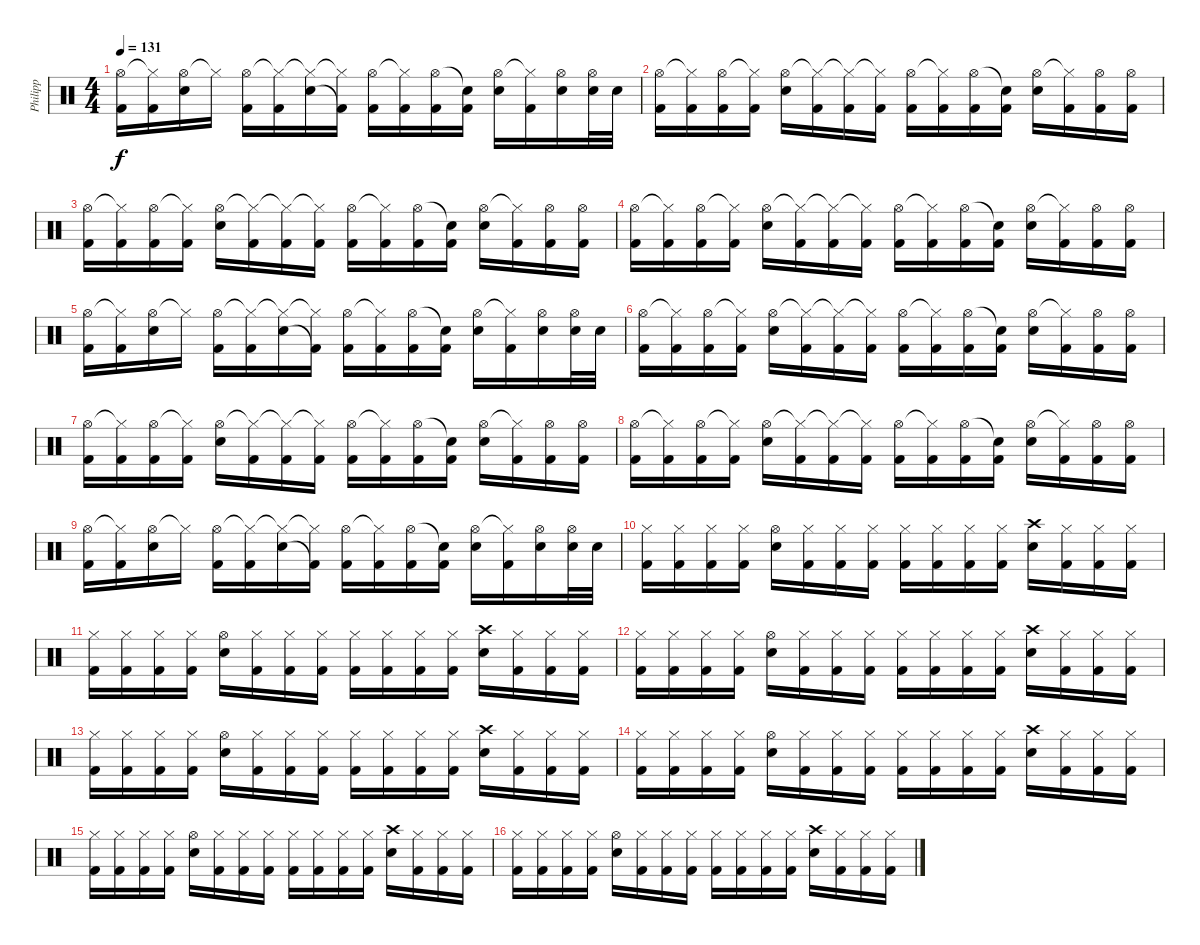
\track ("Philipp" "Philipp") {instrument percussion}
\staff {score}
\articulation defaults
\ts (4 4)
\tempo 131
\clef neutral
\ks c
("Hi-Hat (open)" "Kick (hit) 2").16{dy f} ("Hi-Hat (closed)"{t} "Kick (hit) 2").16 ("Hi-Hat (open)" "Electric Snare (hit)").16 "Hi-Hat (closed)"{t}.16 ("Hi-Hat (open)" "Kick (hit) 2").16 ("Hi-Hat (closed)"{t} "Kick (hit) 2").16 ("Hi-Hat (closed)"{t} "Electric Snare (hit)").16 ("Hi-Hat (closed)"{t} "Kick (hit) 2"{t}).16 ("Hi-Hat (open)" "Kick (hit) 2").16 ("Hi-Hat (closed)"{t} "Kick (hit) 2").16 ("Hi-Hat (open)" "Kick (hit) 2").16 ("Snare (hit)"{t} "Kick (hit) 2").16 ("Hi-Hat (open)" "Electric Snare (hit)").16 ("Hi-Hat (closed)"{t} "Kick (hit) 2").16 ("Hi-Hat (open)" "Electric Snare (hit)").16 ("Hi-Hat (open)" "Electric Snare (hit)").32 "Electric Snare (hit)".32 |
("Hi-Hat (open)" "Kick (hit) 2").16 ("Hi-Hat (closed)"{t} "Kick (hit) 2").16 ("Hi-Hat (open)" "Kick (hit) 2").16 ("Hi-Hat (closed)"{t} "Kick (hit) 2").16 ("Hi-Hat (open)" "Electric Snare (hit)").16 ("Hi-Hat (closed)"{t} "Kick (hit) 2").16 ("Hi-Hat (closed)"{t} "Kick (hit) 2").16 ("Hi-Hat (closed)"{t} "Kick (hit) 2").16 ("Hi-Hat (open)" "Kick (hit) 2").16 ("Hi-Hat (closed)"{t} "Kick (hit) 2").16 ("Hi-Hat (open)" "Kick (hit) 2").16 ("Snare (hit)"{t} "Kick (hit) 2").16 ("Hi-Hat (open)" "Electric Snare (hit)").16 ("Hi-Hat (closed)"{t} "Kick (hit) 2").16 ("Hi-Hat (open)" "Kick (hit) 2").16 ("Hi-Hat (open)" "Kick (hit) 2").16 |
("Hi-Hat (open)" "Kick (hit) 2").16 ("Hi-Hat (closed)"{t} "Kick (hit) 2").16 ("Hi-Hat (open)" "Kick (hit) 2").16 ("Hi-Hat (closed)"{t} "Kick (hit) 2").16 ("Hi-Hat (open)" "Electric Snare (hit)").16 ("Hi-Hat (closed)"{t} "Kick (hit) 2").16 ("Hi-Hat (closed)"{t} "Kick (hit) 2").16 ("Hi-Hat (closed)"{t} "Kick (hit) 2").16 ("Hi-Hat (open)" "Kick (hit) 2").16 ("Hi-Hat (closed)"{t} "Kick (hit) 2").16 ("Hi-Hat (open)" "Kick (hit) 2").16 ("Snare (hit)"{t} "Kick (hit) 2").16 ("Hi-Hat (open)" "Electric Snare (hit)").16 ("Hi-Hat (closed)"{t} "Kick (hit) 2").16 ("Hi-Hat (open)" "Kick (hit) 2").16 ("Hi-Hat (open)" "Kick (hit) 2").16 |
("Hi-Hat (open)" "Kick (hit) 2").16 ("Hi-Hat (closed)"{t} "Kick (hit) 2").16 ("Hi-Hat (open)" "Kick (hit) 2").16 ("Hi-Hat (closed)"{t} "Kick (hit) 2").16 ("Hi-Hat (open)" "Electric Snare (hit)").16 ("Hi-Hat (closed)"{t} "Kick (hit) 2").16 ("Hi-Hat (closed)"{t} "Kick (hit) 2").16 ("Hi-Hat (closed)"{t} "Kick (hit) 2").16 ("Hi-Hat (open)" "Kick (hit) 2").16 ("Hi-Hat (closed)"{t} "Kick (hit) 2").16 ("Hi-Hat (open)" "Kick (hit) 2").16 ("Snare (hit)"{t} "Kick (hit) 2").16 ("Hi-Hat (open)" "Electric Snare (hit)").16 ("Hi-Hat (closed)"{t} "Kick (hit) 2").16 ("Hi-Hat (open)" "Kick (hit) 2").16 ("Hi-Hat (open)" "Kick (hit) 2").16 |
("Hi-Hat (open)" "Kick (hit) 2").16 ("Hi-Hat (closed)"{t} "Kick (hit) 2").16 ("Hi-Hat (open)" "Electric Snare (hit)").16 "Hi-Hat (closed)"{t}.16 ("Hi-Hat (open)" "Kick (hit) 2").16 ("Hi-Hat (closed)"{t} "Kick (hit) 2").16 ("Hi-Hat (closed)"{t} "Electric Snare (hit)").16 ("Hi-Hat (closed)"{t} "Kick (hit) 2"{t}).16 ("Hi-Hat (open)" "Kick (hit) 2").16 ("Hi-Hat (closed)"{t} "Kick (hit) 2").16 ("Hi-Hat (open)" "Kick (hit) 2").16 ("Snare (hit)"{t} "Kick (hit) 2").16 ("Hi-Hat (open)" "Electric Snare (hit)").16 ("Hi-Hat (closed)"{t} "Kick (hit) 2").16 ("Hi-Hat (open)" "Electric Snare (hit)").16 ("Hi-Hat (open)" "Electric Snare (hit)").32 "Electric Snare (hit)".32 |
("Hi-Hat (open)" "Kick (hit) 2").16 ("Hi-Hat (closed)"{t} "Kick (hit) 2").16 ("Hi-Hat (open)" "Kick (hit) 2").16 ("Hi-Hat (closed)"{t} "Kick (hit) 2").16 ("Hi-Hat (open)" "Electric Snare (hit)").16 ("Hi-Hat (closed)"{t} "Kick (hit) 2").16 ("Hi-Hat (closed)"{t} "Kick (hit) 2").16 ("Hi-Hat (closed)"{t} "Kick (hit) 2").16 ("Hi-Hat (open)" "Kick (hit) 2").16 ("Hi-Hat (closed)"{t} "Kick (hit) 2").16 ("Hi-Hat (open)" "Kick (hit) 2").16 ("Snare (hit)"{t} "Kick (hit) 2").16 ("Hi-Hat (open)" "Electric Snare (hit)").16 ("Hi-Hat (closed)"{t} "Kick (hit) 2").16 ("Hi-Hat (open)" "Kick (hit) 2").16 ("Hi-Hat (open)" "Kick (hit) 2").16 |
("Hi-Hat (open)" "Kick (hit) 2").16 ("Hi-Hat (closed)"{t} "Kick (hit) 2").16 ("Hi-Hat (open)" "Kick (hit) 2").16 ("Hi-Hat (closed)"{t} "Kick (hit) 2").16 ("Hi-Hat (open)" "Electric Snare (hit)").16 ("Hi-Hat (closed)"{t} "Kick (hit) 2").16 ("Hi-Hat (closed)"{t} "Kick (hit) 2").16 ("Hi-Hat (closed)"{t} "Kick (hit) 2").16 ("Hi-Hat (open)" "Kick (hit) 2").16 ("Hi-Hat (closed)"{t} "Kick (hit) 2").16 ("Hi-Hat (open)" "Kick (hit) 2").16 ("Snare (hit)"{t} "Kick (hit) 2").16 ("Hi-Hat (open)" "Electric Snare (hit)").16 ("Hi-Hat (closed)"{t} "Kick (hit) 2").16 ("Hi-Hat (open)" "Kick (hit) 2").16 ("Hi-Hat (open)" "Kick (hit) 2").16 |
("Hi-Hat (open)" "Kick (hit) 2").16 ("Hi-Hat (closed)"{t} "Kick (hit) 2").16 ("Hi-Hat (open)" "Kick (hit) 2").16 ("Hi-Hat (closed)"{t} "Kick (hit) 2").16 ("Hi-Hat (open)" "Electric Snare (hit)").16 ("Hi-Hat (closed)"{t} "Kick (hit) 2").16 ("Hi-Hat (closed)"{t} "Kick (hit) 2").16 ("Hi-Hat (closed)"{t} "Kick (hit) 2").16 ("Hi-Hat (open)" "Kick (hit) 2").16 ("Hi-Hat (closed)"{t} "Kick (hit) 2").16 ("Hi-Hat (open)" "Kick (hit) 2").16 ("Snare (hit)"{t} "Kick (hit) 2").16 ("Hi-Hat (open)" "Electric Snare (hit)").16 ("Hi-Hat (closed)"{t} "Kick (hit) 2").16 ("Hi-Hat (open)" "Kick (hit) 2").16 ("Hi-Hat (open)" "Kick (hit) 2").16 |
("Hi-Hat (open)" "Kick (hit) 2").16 ("Hi-Hat (closed)"{t} "Kick (hit) 2").16 ("Hi-Hat (open)" "Electric Snare (hit)").16 "Hi-Hat (closed)"{t}.16 ("Hi-Hat (open)" "Kick (hit) 2").16 ("Hi-Hat (closed)"{t} "Kick (hit) 2").16 ("Hi-Hat (closed)"{t} "Electric Snare (hit)").16 ("Hi-Hat (closed)"{t} "Kick (hit) 2"{t}).16 ("Hi-Hat (open)" "Kick (hit) 2").16 ("Hi-Hat (closed)"{t} "Kick (hit) 2").16 ("Hi-Hat (open)" "Kick (hit) 2").16 ("Snare (hit)"{t} "Kick (hit) 2").16 ("Hi-Hat (open)" "Electric Snare (hit)").16 ("Hi-Hat (closed)"{t} "Kick (hit) 2").16 ("Hi-Hat (open)" "Electric Snare (hit)").16 ("Hi-Hat (open)" "Electric Snare (hit)").32 "Electric Snare (hit)".32 |
("Hi-Hat (closed)" "Kick (hit) 2").16 ("Hi-Hat (closed)" "Kick (hit) 2").16 ("Hi-Hat (closed)" "Kick (hit) 2").16 ("Hi-Hat (closed)" "Kick (hit) 2").16 ("Hi-Hat (open)" "Electric Snare (hit)").16 ("Hi-Hat (closed)" "Kick (hit) 2").16 ("Hi-Hat (closed)" "Kick (hit) 2").16 ("Hi-Hat (closed)" "Kick (hit) 2").16 ("Hi-Hat (closed)" "Kick (hit) 2").16 ("Hi-Hat (closed)" "Kick (hit) 2").16 ("Hi-Hat (closed)" "Kick (hit) 2").16 ("Hi-Hat (closed)" "Kick (hit) 2").16 ("Crash high (hit)" "Electric Snare (hit)").16 ("Hi-Hat (closed)" "Kick (hit) 2").16 ("Hi-Hat (closed)" "Kick (hit) 2").16 ("Hi-Hat (closed)" "Kick (hit) 2").16 |
("Hi-Hat (closed)" "Kick (hit) 2").16 ("Hi-Hat (closed)" "Kick (hit) 2").16 ("Hi-Hat (closed)" "Kick (hit) 2").16 ("Hi-Hat (closed)" "Kick (hit) 2").16 ("Hi-Hat (open)" "Electric Snare (hit)").16 ("Hi-Hat (closed)" "Kick (hit) 2").16 ("Hi-Hat (closed)" "Kick (hit) 2").16 ("Hi-Hat (closed)" "Kick (hit) 2").16 ("Hi-Hat (closed)" "Kick (hit) 2").16 ("Hi-Hat (closed)" "Kick (hit) 2").16 ("Hi-Hat (closed)" "Kick (hit) 2").16 ("Hi-Hat (closed)" "Kick (hit) 2").16 ("Crash high (hit)" "Electric Snare (hit)").16 ("Hi-Hat (closed)" "Kick (hit) 2").16 ("Hi-Hat (closed)" "Kick (hit) 2").16 ("Hi-Hat (closed)" "Kick (hit) 2").16 |
("Hi-Hat (closed)" "Kick (hit) 2").16 ("Hi-Hat (closed)" "Kick (hit) 2").16 ("Hi-Hat (closed)" "Kick (hit) 2").16 ("Hi-Hat (closed)" "Kick (hit) 2").16 ("Hi-Hat (open)" "Electric Snare (hit)").16 ("Hi-Hat (closed)" "Kick (hit) 2").16 ("Hi-Hat (closed)" "Kick (hit) 2").16 ("Hi-Hat (closed)" "Kick (hit) 2").16 ("Hi-Hat (closed)" "Kick (hit) 2").16 ("Hi-Hat (closed)" "Kick (hit) 2").16 ("Hi-Hat (closed)" "Kick (hit) 2").16 ("Hi-Hat (closed)" "Kick (hit) 2").16 ("Crash high (hit)" "Electric Snare (hit)").16 ("Hi-Hat (closed)" "Kick (hit) 2").16 ("Hi-Hat (closed)" "Kick (hit) 2").16 ("Hi-Hat (closed)" "Kick (hit) 2").16 |
("Hi-Hat (closed)" "Kick (hit) 2").16 ("Hi-Hat (closed)" "Kick (hit) 2").16 ("Hi-Hat (closed)" "Kick (hit) 2").16 ("Hi-Hat (closed)" "Kick (hit) 2").16 ("Hi-Hat (open)" "Electric Snare (hit)").16 ("Hi-Hat (closed)" "Kick (hit) 2").16 ("Hi-Hat (closed)" "Kick (hit) 2").16 ("Hi-Hat (closed)" "Kick (hit) 2").16 ("Hi-Hat (closed)" "Kick (hit) 2").16 ("Hi-Hat (closed)" "Kick (hit) 2").16 ("Hi-Hat (closed)" "Kick (hit) 2").16 ("Hi-Hat (closed)" "Kick (hit) 2").16 ("Crash high (hit)" "Electric Snare (hit)").16 ("Hi-Hat (closed)" "Kick (hit) 2").16 ("Hi-Hat (closed)" "Kick (hit) 2").16 ("Hi-Hat (closed)" "Kick (hit) 2").16 |
("Hi-Hat (closed)" "Kick (hit) 2").16 ("Hi-Hat (closed)" "Kick (hit) 2").16 ("Hi-Hat (closed)" "Kick (hit) 2").16 ("Hi-Hat (closed)" "Kick (hit) 2").16 ("Hi-Hat (open)" "Electric Snare (hit)").16 ("Hi-Hat (closed)" "Kick (hit) 2").16 ("Hi-Hat (closed)" "Kick (hit) 2").16 ("Hi-Hat (closed)" "Kick (hit) 2").16 ("Hi-Hat (closed)" "Kick (hit) 2").16 ("Hi-Hat (closed)" "Kick (hit) 2").16 ("Hi-Hat (closed)" "Kick (hit) 2").16 ("Hi-Hat (closed)" "Kick (hit) 2").16 ("Crash high (hit)" "Electric Snare (hit)").16 ("Hi-Hat (closed)" "Kick (hit) 2").16 ("Hi-Hat (closed)" "Kick (hit) 2").16 ("Hi-Hat (closed)" "Kick (hit) 2").16 |
("Hi-Hat (closed)" "Kick (hit) 2").16 ("Hi-Hat (closed)" "Kick (hit) 2").16 ("Hi-Hat (closed)" "Kick (hit) 2").16 ("Hi-Hat (closed)" "Kick (hit) 2").16 ("Hi-Hat (open)" "Electric Snare (hit)").16 ("Hi-Hat (closed)" "Kick (hit) 2").16 ("Hi-Hat (closed)" "Kick (hit) 2").16 ("Hi-Hat (closed)" "Kick (hit) 2").16 ("Hi-Hat (closed)" "Kick (hit) 2").16 ("Hi-Hat (closed)" "Kick (hit) 2").16 ("Hi-Hat (closed)" "Kick (hit) 2").16 ("Hi-Hat (closed)" "Kick (hit) 2").16 ("Crash high (hit)" "Electric Snare (hit)").16 ("Hi-Hat (closed)" "Kick (hit) 2").16 ("Hi-Hat (closed)" "Kick (hit) 2").16 ("Hi-Hat (closed)" "Kick (hit) 2").16 |
("Hi-Hat (closed)" "Kick (hit) 2").16 ("Hi-Hat (closed)" "Kick (hit) 2").16 ("Hi-Hat (closed)" "Kick (hit) 2").16 ("Hi-Hat (closed)" "Kick (hit) 2").16 ("Hi-Hat (open)" "Electric Snare (hit)").16 ("Hi-Hat (closed)" "Kick (hit) 2").16 ("Hi-Hat (closed)" "Kick (hit) 2").16 ("Hi-Hat (closed)" "Kick (hit) 2").16 ("Hi-Hat (closed)" "Kick (hit) 2").16 ("Hi-Hat (closed)" "Kick (hit) 2").16 ("Hi-Hat (closed)" "Kick (hit) 2").16 ("Hi-Hat (closed)" "Kick (hit) 2").16 ("Crash high (hit)" "Electric Snare (hit)").16 ("Hi-Hat (closed)" "Kick (hit) 2").16 ("Hi-Hat (closed)" "Kick (hit) 2").16 ("Hi-Hat (closed)" "Kick (hit) 2").16
